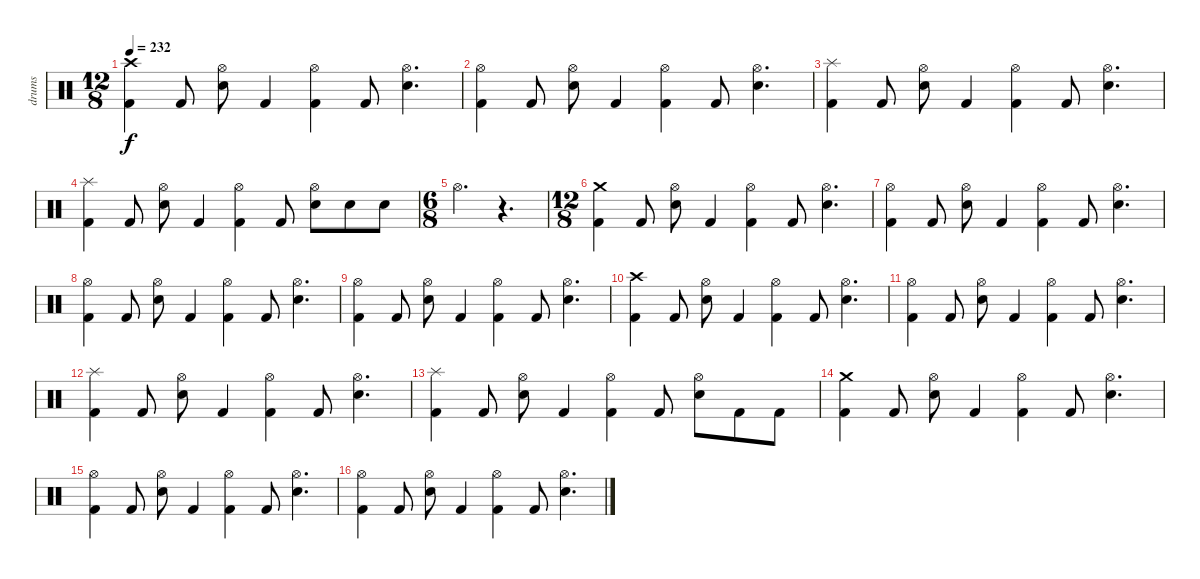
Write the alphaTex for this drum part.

\track ("drums" "drums") {instrument percussion}
\staff {score}
\articulation defaults
\ts (12 8)
\tempo 232
\clef neutral
\ks c
("Kick (hit) 2" "Crash high (hit)").4{dy f} "Kick (hit) 2".8 ("Electric Snare (hit)" "Hi-Hat (open)").8 "Kick (hit) 2".4 ("Kick (hit) 2" "Hi-Hat (open)").4 "Kick (hit) 2".8 ("Electric Snare (hit)" "Hi-Hat (open)").4{d} |
("Hi-Hat (open)" "Kick (hit) 2").4 "Kick (hit) 2".8 ("Hi-Hat (open)" "Electric Snare (hit)").8 "Kick (hit) 2".4 ("Hi-Hat (open)" "Kick (hit) 2").4 "Kick (hit) 2".8 ("Hi-Hat (open)" "Electric Snare (hit)").4{d} |
("Splash (hit)" "Kick (hit) 2").4 "Kick (hit) 2".8 ("Hi-Hat (open)" "Electric Snare (hit)").8 "Kick (hit) 2".4 ("Hi-Hat (open)" "Kick (hit) 2").4 "Kick (hit) 2".8 ("Hi-Hat (open)" "Electric Snare (hit)").4{d} |
("Splash (hit)" "Kick (hit) 2").4 "Kick (hit) 2".8 ("Hi-Hat (open)" "Electric Snare (hit)").8 "Kick (hit) 2".4 ("Hi-Hat (open)" "Kick (hit) 2").4 "Kick (hit) 2".8 ("Electric Snare (hit)" "Hi-Hat (open)").8 "Electric Snare (hit)".8 "Electric Snare (hit)".8 |
\ts (6 8)
"Hi-Hat (open)".4{d} r.4{d} |
\ts (12 8)
("Kick (hit) 2" "Crash medium (hit)").4 "Kick (hit) 2".8 ("Electric Snare (hit)" "Hi-Hat (open)").8 "Kick (hit) 2".4 ("Kick (hit) 2" "Hi-Hat (open)").4 "Kick (hit) 2".8 ("Electric Snare (hit)" "Hi-Hat (open)").4{d} |
("Hi-Hat (open)" "Kick (hit) 2").4 "Kick (hit) 2".8 ("Hi-Hat (open)" "Electric Snare (hit)").8 "Kick (hit) 2".4 ("Hi-Hat (open)" "Kick (hit) 2").4 "Kick (hit) 2".8 ("Hi-Hat (open)" "Electric Snare (hit)").4{d} |
("Hi-Hat (open)" "Kick (hit) 2").4 "Kick (hit) 2".8 ("Hi-Hat (open)" "Electric Snare (hit)").8 "Kick (hit) 2".4 ("Hi-Hat (open)" "Kick (hit) 2").4 "Kick (hit) 2".8 ("Hi-Hat (open)" "Electric Snare (hit)").4{d} |
("Hi-Hat (open)" "Kick (hit) 2").4 "Kick (hit) 2".8 ("Hi-Hat (open)" "Electric Snare (hit)").8 "Kick (hit) 2".4 ("Hi-Hat (open)" "Kick (hit) 2").4 "Kick (hit) 2".8 ("Hi-Hat (open)" "Electric Snare (hit)").4{d} |
("Kick (hit) 2" "Crash high (hit)").4 "Kick (hit) 2".8 ("Electric Snare (hit)" "Hi-Hat (open)").8 "Kick (hit) 2".4 ("Kick (hit) 2" "Hi-Hat (open)").4 "Kick (hit) 2".8 ("Electric Snare (hit)" "Hi-Hat (open)").4{d} |
("Hi-Hat (open)" "Kick (hit) 2").4 "Kick (hit) 2".8 ("Hi-Hat (open)" "Electric Snare (hit)").8 "Kick (hit) 2".4 ("Hi-Hat (open)" "Kick (hit) 2").4 "Kick (hit) 2".8 ("Hi-Hat (open)" "Electric Snare (hit)").4{d} |
("Splash (hit)" "Kick (hit) 2").4 "Kick (hit) 2".8 ("Hi-Hat (open)" "Electric Snare (hit)").8 "Kick (hit) 2".4 ("Hi-Hat (open)" "Kick (hit) 2").4 "Kick (hit) 2".8 ("Hi-Hat (open)" "Electric Snare (hit)").4{d} |
("Splash (hit)" "Kick (hit) 2").4 "Kick (hit) 2".8 ("Hi-Hat (open)" "Electric Snare (hit)").8 "Kick (hit) 2".4 ("Hi-Hat (open)" "Kick (hit) 2").4 "Kick (hit) 2".8 ("Electric Snare (hit)" "Hi-Hat (open)").8 "Kick (hit) 2".8 "Kick (hit) 2".8 |
("Kick (hit) 2" "Crash medium (hit)").4 "Kick (hit) 2".8 ("Electric Snare (hit)" "Hi-Hat (open)").8 "Kick (hit) 2".4 ("Kick (hit) 2" "Hi-Hat (open)").4 "Kick (hit) 2".8 ("Electric Snare (hit)" "Hi-Hat (open)").4{d} |
("Hi-Hat (open)" "Kick (hit) 2").4 "Kick (hit) 2".8 ("Hi-Hat (open)" "Electric Snare (hit)").8 "Kick (hit) 2".4 ("Hi-Hat (open)" "Kick (hit) 2").4 "Kick (hit) 2".8 ("Hi-Hat (open)" "Electric Snare (hit)").4{d} |
("Hi-Hat (open)" "Kick (hit) 2").4 "Kick (hit) 2".8 ("Hi-Hat (open)" "Electric Snare (hit)").8 "Kick (hit) 2".4 ("Hi-Hat (open)" "Kick (hit) 2").4 "Kick (hit) 2".8 ("Hi-Hat (open)" "Electric Snare (hit)").4{d}
